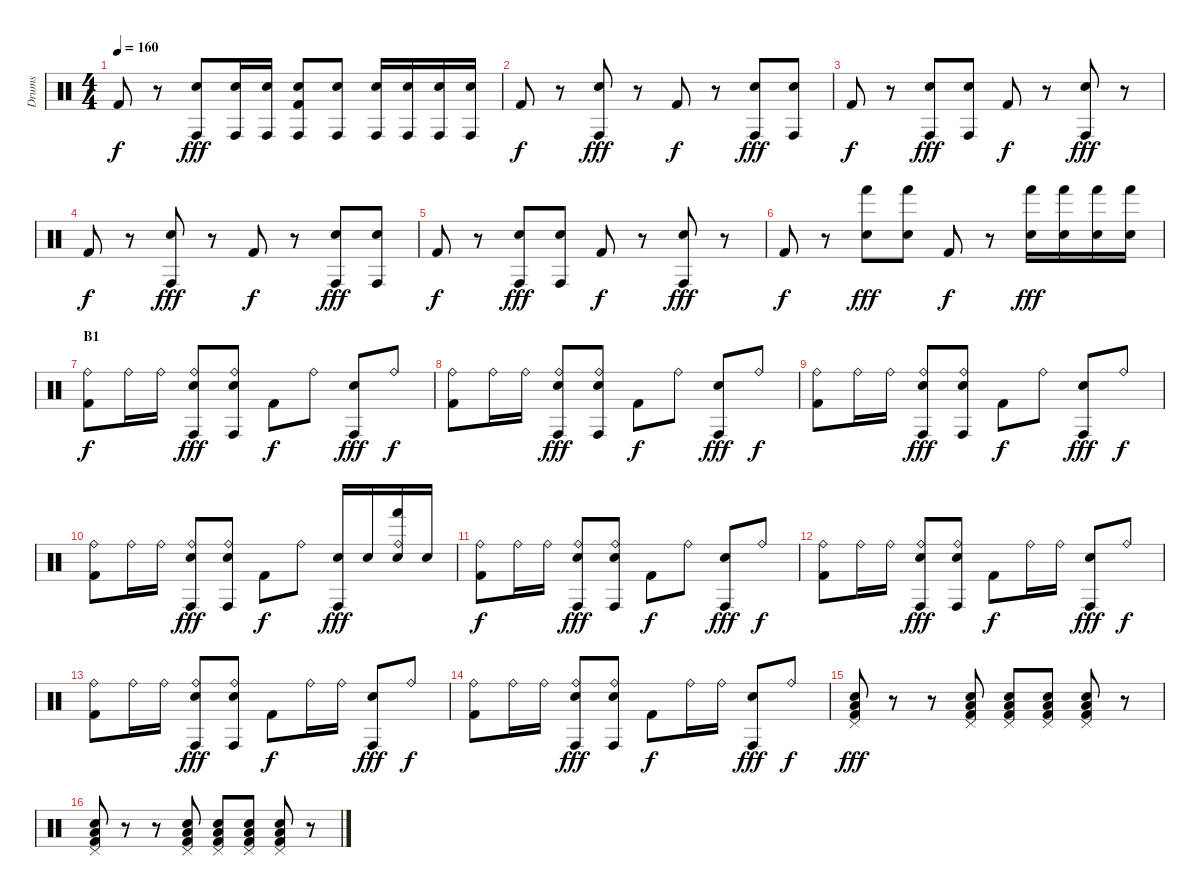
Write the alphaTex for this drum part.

\track ("Drums" "Drums") {instrument percussion}
\staff {score}
\articulation defaults
\ts (4 4)
\tempo 160
\clef neutral
\ks c "Kick (hit) 2".8{dy f}
r.8 ("Conga high (hit)" "Electric Snare (hit)").8{dy fff} ("Conga high (hit)" "Electric Snare (hit)").16 ("Conga high (hit)" "Electric Snare (hit)").16 ("Conga high (hit)" "Electric Snare (hit)" "Kick (hit) 2").8 ("Conga high (hit)" "Electric Snare (hit)").8 ("Conga high (hit)" "Electric Snare (hit)").16 ("Conga high (hit)" "Electric Snare (hit)").16 ("Conga high (hit)" "Electric Snare (hit)").16 ("Conga high (hit)" "Electric Snare (hit)").16 |
"Kick (hit) 2".8{dy f} r.8 ("Conga high (hit)" "Electric Snare (hit)").8{dy fff} r.8 "Kick (hit) 2".8{dy f} r.8 ("Conga high (hit)" "Electric Snare (hit)").8{dy fff} ("Conga high (hit)" "Electric Snare (hit)").8 |
"Kick (hit) 2".8{dy f} r.8 ("Conga high (hit)" "Electric Snare (hit)").8{dy fff} ("Conga high (hit)" "Electric Snare (hit)").8 "Kick (hit) 2".8{dy f} r.8 ("Conga high (hit)" "Electric Snare (hit)").8{dy fff} r.8 |
"Kick (hit) 2".8{dy f} r.8 ("Conga high (hit)" "Electric Snare (hit)").8{dy fff} r.8 "Kick (hit) 2".8{dy f} r.8 ("Conga high (hit)" "Electric Snare (hit)").8{dy fff} ("Conga high (hit)" "Electric Snare (hit)").8 |
"Kick (hit) 2".8{dy f} r.8 ("Conga high (hit)" "Electric Snare (hit)").8{dy fff} ("Conga high (hit)" "Electric Snare (hit)").8 "Kick (hit) 2".8{dy f} r.8 ("Conga high (hit)" "Electric Snare (hit)").8{dy fff} r.8 |
"Kick (hit) 2".8{dy f} r.8 ("Hand (hit)" "Electric Snare (hit)").8{dy fff} ("Hand (hit)" "Electric Snare (hit)").8 "Kick (hit) 2".8{dy f} r.8 ("Hand (hit)" "Electric Snare (hit)").16{dy fff} ("Hand (hit)" "Electric Snare (hit)").16 ("Hand (hit)" "Electric Snare (hit)").16 ("Hand (hit)" "Electric Snare (hit)").16 |
\section ("" "B1")
("Ride (bell)" "Kick (hit) 2").8{dy f} "Ride (bell)".16 "Ride (bell)".16 ("Ride (bell)" "Conga high (hit)" "Electric Snare (hit)").8{dy fff} ("Ride (bell)" "Conga high (hit)" "Electric Snare (hit)").8 "Kick (hit) 2".8{dy f} "Ride (bell)".8 ("Conga high (hit)" "Electric Snare (hit)").8{dy fff} "Ride (bell)".8{dy f} |
("Ride (bell)" "Kick (hit) 2").8 "Ride (bell)".16 "Ride (bell)".16 ("Ride (bell)" "Conga high (hit)" "Electric Snare (hit)").8{dy fff} ("Ride (bell)" "Conga high (hit)" "Electric Snare (hit)").8 "Kick (hit) 2".8{dy f} "Ride (bell)".8 ("Conga high (hit)" "Electric Snare (hit)").8{dy fff} "Ride (bell)".8{dy f} |
("Ride (bell)" "Kick (hit) 2").8 "Ride (bell)".16 "Ride (bell)".16 ("Ride (bell)" "Conga high (hit)" "Electric Snare (hit)").8{dy fff} ("Ride (bell)" "Conga high (hit)" "Electric Snare (hit)").8 "Kick (hit) 2".8{dy f} "Ride (bell)".8 ("Conga high (hit)" "Electric Snare (hit)").8{dy fff} "Ride (bell)".8{dy f} |
("Ride (bell)" "Kick (hit) 2").8 "Ride (bell)".16 "Ride (bell)".16 ("Ride (bell)" "Conga high (hit)" "Electric Snare (hit)").8{dy fff} ("Ride (bell)" "Conga high (hit)" "Electric Snare (hit)").8 "Kick (hit) 2".8{dy f} "Ride (bell)".8 ("Conga high (hit)" "Electric Snare (hit)").16{dy fff} "Electric Snare (hit)".16 ("Ride (bell)" "Hand (hit)" "Electric Snare (hit)").16 "Electric Snare (hit)".16 |
("Ride (bell)" "Kick (hit) 2").8{dy f} "Ride (bell)".16 "Ride (bell)".16 ("Ride (bell)" "Conga high (hit)" "Electric Snare (hit)").8{dy fff} ("Ride (bell)" "Conga high (hit)" "Electric Snare (hit)").8 "Kick (hit) 2".8{dy f} "Ride (bell)".8 ("Conga high (hit)" "Electric Snare (hit)").8{dy fff} "Ride (bell)".8{dy f} |
("Ride (bell)" "Kick (hit) 2").8 "Ride (bell)".16 "Ride (bell)".16 ("Ride (bell)" "Conga high (hit)" "Electric Snare (hit)").8{dy fff} ("Ride (bell)" "Conga high (hit)" "Electric Snare (hit)").8 "Kick (hit) 2".8{dy f} "Ride (bell)".16 "Ride (bell)".16 ("Conga high (hit)" "Electric Snare (hit)").8{dy fff} "Ride (bell)".8{dy f} |
("Ride (bell)" "Kick (hit) 2").8 "Ride (bell)".16 "Ride (bell)".16 ("Ride (bell)" "Conga high (hit)" "Electric Snare (hit)").8{dy fff} ("Ride (bell)" "Conga high (hit)" "Electric Snare (hit)").8 "Kick (hit) 2".8{dy f} "Ride (bell)".16 "Ride (bell)".16 ("Conga high (hit)" "Electric Snare (hit)").8{dy fff} "Ride (bell)".8{dy f} |
("Ride (bell)" "Kick (hit) 2").8 "Ride (bell)".16 "Ride (bell)".16 ("Ride (bell)" "Conga high (hit)" "Electric Snare (hit)").8{dy fff} ("Ride (bell)" "Conga high (hit)" "Electric Snare (hit)").8 "Kick (hit) 2".8{dy f} "Ride (bell)".16 "Ride (bell)".16 ("Conga high (hit)" "Electric Snare (hit)").8{dy fff} "Ride (bell)".8{dy f} |
("Pedal Hi-Hat (hit)" "Low Tom (hit)" "Electric Snare (hit)" "Kick (hit) 2").8{dy fff} r.8 r.8 ("Pedal Hi-Hat (hit)" "Low Tom (hit)" "Electric Snare (hit)" "Kick (hit) 2").8 ("Pedal Hi-Hat (hit)" "Low Tom (hit)" "Electric Snare (hit)" "Kick (hit) 2").8 ("Pedal Hi-Hat (hit)" "Low Tom (hit)" "Electric Snare (hit)" "Kick (hit) 2").8 ("Pedal Hi-Hat (hit)" "Low Tom (hit)" "Electric Snare (hit)" "Kick (hit) 2").8 r.8 |
("Pedal Hi-Hat (hit)" "Low Tom (hit)" "Electric Snare (hit)" "Kick (hit) 2").8 r.8 r.8 ("Pedal Hi-Hat (hit)" "Low Tom (hit)" "Electric Snare (hit)" "Kick (hit) 2").8 ("Pedal Hi-Hat (hit)" "Low Tom (hit)" "Electric Snare (hit)" "Kick (hit) 2").8 ("Pedal Hi-Hat (hit)" "Low Tom (hit)" "Electric Snare (hit)" "Kick (hit) 2").8 ("Pedal Hi-Hat (hit)" "Low Tom (hit)" "Electric Snare (hit)" "Kick (hit) 2").8 r.8
